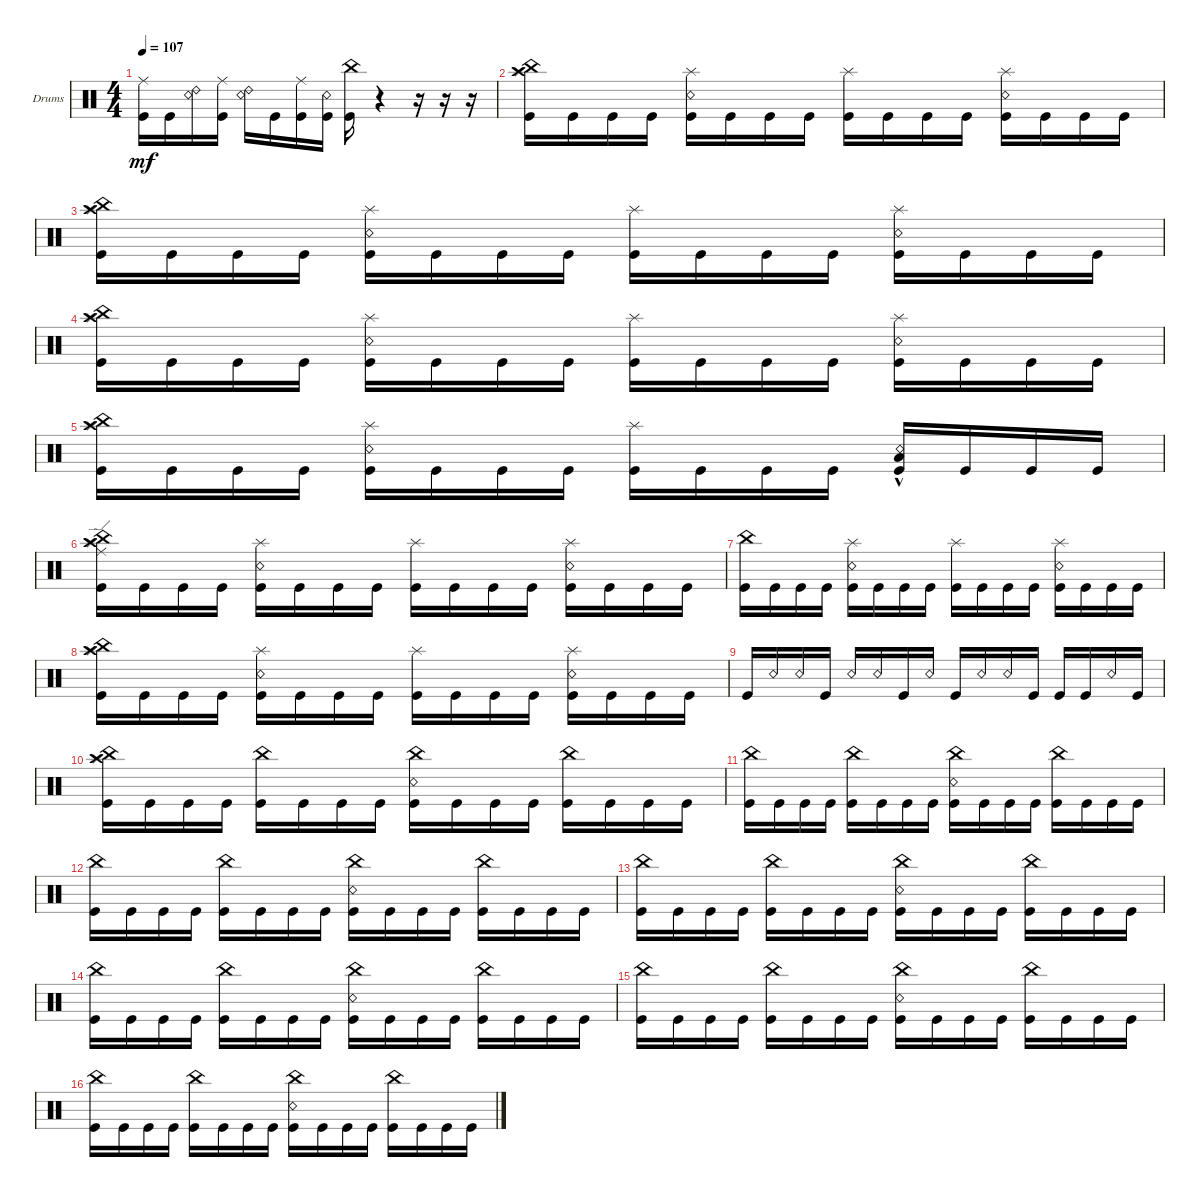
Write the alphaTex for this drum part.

\defaultSystemsLayout 4
\bracketExtendMode groupsimilarinstruments
\firstSystemTrackNameOrientation horizontal
\otherSystemsTrackNameOrientation horizontal
\track ("Drumkit" "Drums") {instrument percussion}
\staff {score}
\articulation defaults
\ts (4 4)
\tempo 107
\clef neutral
\scale
0.333333
\ks c
("Kick (hit)" "Ride (middle)").16{dy mf} "Kick (hit)".16 ("Snare (rim shot)" "Ride (bell) 2").16 ("Kick (hit)" "Ride (middle)").16 ("Snare (rim shot)" "Ride (bell) 2").16 "Kick (hit)".16 ("Kick (hit)" "Ride (middle)").16 ("Kick (hit)" "Snare (rim shot)").16 ("Kick (hit)" "China (hit)").16 r.4 r.16 r.16 r.16 |
\scale
0.333333 ("Kick (hit)" "China (hit)" "Splash (hit)" "Crash high (hit)").16 "Kick (hit)".16 "Kick (hit)".16 "Kick (hit)".16 ("Kick (hit)" "Snare (rim shot)" "Splash (hit)").16 "Kick (hit)".16 "Kick (hit)".16 "Kick (hit)".16 ("Kick (hit)" "Splash (hit)").16 "Kick (hit)".16 "Kick (hit)".16 "Kick (hit)".16 ("Kick (hit)" "Snare (rim shot)" "Splash (hit)").16 "Kick (hit)".16 "Kick (hit)".16 "Kick (hit)".16 |
\scale
0.333333 ("Kick (hit)" "China (hit)" "Splash (hit)" "Crash high (hit)").16 "Kick (hit)".16 "Kick (hit)".16 "Kick (hit)".16 ("Kick (hit)" "Snare (rim shot)" "Splash (hit)").16 "Kick (hit)".16 "Kick (hit)".16 "Kick (hit)".16 ("Kick (hit)" "Splash (hit)").16 "Kick (hit)".16 "Kick (hit)".16 "Kick (hit)".16 ("Kick (hit)" "Snare (rim shot)" "Splash (hit)").16 "Kick (hit)".16 "Kick (hit)".16 "Kick (hit)".16 |
\scale
0.333333 ("Kick (hit)" "China (hit)" "Splash (hit)" "Crash high (hit)").16 "Kick (hit)".16 "Kick (hit)".16 "Kick (hit)".16 ("Kick (hit)" "Snare (rim shot)" "Splash (hit)").16 "Kick (hit)".16 "Kick (hit)".16 "Kick (hit)".16 ("Kick (hit)" "Splash (hit)").16 "Kick (hit)".16 "Kick (hit)".16 "Kick (hit)".16 ("Kick (hit)" "Snare (rim shot)" "Splash (hit)").16 "Kick (hit)".16 "Kick (hit)".16 "Kick (hit)".16 |
\scale
0.333333 ("Kick (hit)" "China (hit)" "Splash (hit)" "Crash high (hit)").16 "Kick (hit)".16 "Kick (hit)".16 "Kick (hit)".16 ("Kick (hit)" "Snare (rim shot)" "Splash (hit)").16 "Kick (hit)".16 "Kick (hit)".16 "Kick (hit)".16 ("Kick (hit)" "Splash (hit)").16 "Kick (hit)".16 "Kick (hit)".16 "Kick (hit)".16 ("Kick (hit)" "Snare (rim shot)" "Low Tom (hit)"{hac}).16 "Kick (hit)".16 "Kick (hit)".16 "Kick (hit)".16 |
("Kick (hit)" "China (hit)" "Splash (hit)" "Crash high (hit)" "Ride (edge)").16 "Kick (hit)".16 "Kick (hit)".16 "Kick (hit)".16 ("Kick (hit)" "Snare (rim shot)" "Splash (hit)").16 "Kick (hit)".16 "Kick (hit)".16 "Kick (hit)".16 ("Kick (hit)" "Splash (hit)").16 "Kick (hit)".16 "Kick (hit)".16 "Kick (hit)".16 ("Kick (hit)" "Snare (rim shot)" "Splash (hit)").16 "Kick (hit)".16 "Kick (hit)".16 "Kick (hit)".16 |
("Kick (hit)" "China (hit)").16 "Kick (hit)".16 "Kick (hit)".16 "Kick (hit)".16 ("Kick (hit)" "Snare (rim shot)" "Splash (hit)").16 "Kick (hit)".16 "Kick (hit)".16 "Kick (hit)".16 ("Kick (hit)" "Splash (hit)").16 "Kick (hit)".16 "Kick (hit)".16 "Kick (hit)".16 ("Kick (hit)" "Snare (rim shot)" "Splash (hit)").16 "Kick (hit)".16 "Kick (hit)".16 "Kick (hit)".16 |
("Kick (hit)" "China (hit)" "Splash (hit)" "Crash high (hit)").16 "Kick (hit)".16 "Kick (hit)".16 "Kick (hit)".16 ("Kick (hit)" "Snare (rim shot)" "Splash (hit)").16 "Kick (hit)".16 "Kick (hit)".16 "Kick (hit)".16 ("Kick (hit)" "Splash (hit)").16 "Kick (hit)".16 "Kick (hit)".16 "Kick (hit)".16 ("Kick (hit)" "Snare (rim shot)" "Splash (hit)").16 "Kick (hit)".16 "Kick (hit)".16 "Kick (hit)".16 |
"Kick (hit)".16 "Snare (rim shot)".16 "Snare (rim shot)".16 "Kick (hit)".16 "Snare (rim shot)".16 "Snare (rim shot)".16 "Kick (hit)".16 "Snare (rim shot)".16 "Kick (hit)".16 "Snare (rim shot)".16 "Snare (rim shot)".16 "Kick (hit)".16 "Kick (hit)".16 "Kick (hit)".16 "Snare (rim shot)".16 "Kick (hit)".16 |
\scale
0.333333 ("Kick (hit)" "Splash (hit)" "Crash high (hit)" "China (hit)").16 "Kick (hit)".16 "Kick (hit)".16 "Kick (hit)".16 ("Kick (hit)" "China (hit)").16 "Kick (hit)".16 "Kick (hit)".16 "Kick (hit)".16 ("Kick (hit)" "Snare (rim shot)" "China (hit)").16 "Kick (hit)".16 "Kick (hit)".16 "Kick (hit)".16 ("Kick (hit)" "China (hit)").16 "Kick (hit)".16 "Kick (hit)".16 "Kick (hit)".16 |
\scale
0.333333 ("Kick (hit)" "China (hit)").16 "Kick (hit)".16 "Kick (hit)".16 "Kick (hit)".16 ("Kick (hit)" "China (hit)").16 "Kick (hit)".16 "Kick (hit)".16 "Kick (hit)".16 ("Kick (hit)" "Snare (rim shot)" "China (hit)").16 "Kick (hit)".16 "Kick (hit)".16 "Kick (hit)".16 ("Kick (hit)" "China (hit)").16 "Kick (hit)".16 "Kick (hit)".16 "Kick (hit)".16 |
\scale
0.333333 ("Kick (hit)" "China (hit)").16 "Kick (hit)".16 "Kick (hit)".16 "Kick (hit)".16 ("Kick (hit)" "China (hit)").16 "Kick (hit)".16 "Kick (hit)".16 "Kick (hit)".16 ("Kick (hit)" "Snare (rim shot)" "China (hit)").16 "Kick (hit)".16 "Kick (hit)".16 "Kick (hit)".16 ("Kick (hit)" "China (hit)").16 "Kick (hit)".16 "Kick (hit)".16 "Kick (hit)".16 |
\scale
0.333333 ("Kick (hit)" "China (hit)").16 "Kick (hit)".16 "Kick (hit)".16 "Kick (hit)".16 ("Kick (hit)" "China (hit)").16 "Kick (hit)".16 "Kick (hit)".16 "Kick (hit)".16 ("Kick (hit)" "Snare (rim shot)" "China (hit)").16 "Kick (hit)".16 "Kick (hit)".16 "Kick (hit)".16 ("Kick (hit)" "China (hit)").16 "Kick (hit)".16 "Kick (hit)".16 "Kick (hit)".16 |
\scale
0.333333 ("Kick (hit)" "China (hit)").16 "Kick (hit)".16 "Kick (hit)".16 "Kick (hit)".16 ("Kick (hit)" "China (hit)").16 "Kick (hit)".16 "Kick (hit)".16 "Kick (hit)".16 ("Kick (hit)" "Snare (rim shot)" "China (hit)").16 "Kick (hit)".16 "Kick (hit)".16 "Kick (hit)".16 ("Kick (hit)" "China (hit)").16 "Kick (hit)".16 "Kick (hit)".16 "Kick (hit)".16 |
\scale
0.333333 ("Kick (hit)" "China (hit)").16 "Kick (hit)".16 "Kick (hit)".16 "Kick (hit)".16 ("Kick (hit)" "China (hit)").16 "Kick (hit)".16 "Kick (hit)".16 "Kick (hit)".16 ("Kick (hit)" "Snare (rim shot)" "China (hit)").16 "Kick (hit)".16 "Kick (hit)".16 "Kick (hit)".16 ("Kick (hit)" "China (hit)").16 "Kick (hit)".16 "Kick (hit)".16 "Kick (hit)".16 |
\scale
0.333333 ("Kick (hit)" "China (hit)").16 "Kick (hit)".16 "Kick (hit)".16 "Kick (hit)".16 ("Kick (hit)" "China (hit)").16 "Kick (hit)".16 "Kick (hit)".16 "Kick (hit)".16 ("Kick (hit)" "Snare (rim shot)" "China (hit)").16 "Kick (hit)".16 "Kick (hit)".16 "Kick (hit)".16 ("Kick (hit)" "China (hit)").16 "Kick (hit)".16 "Kick (hit)".16 "Kick (hit)".16
